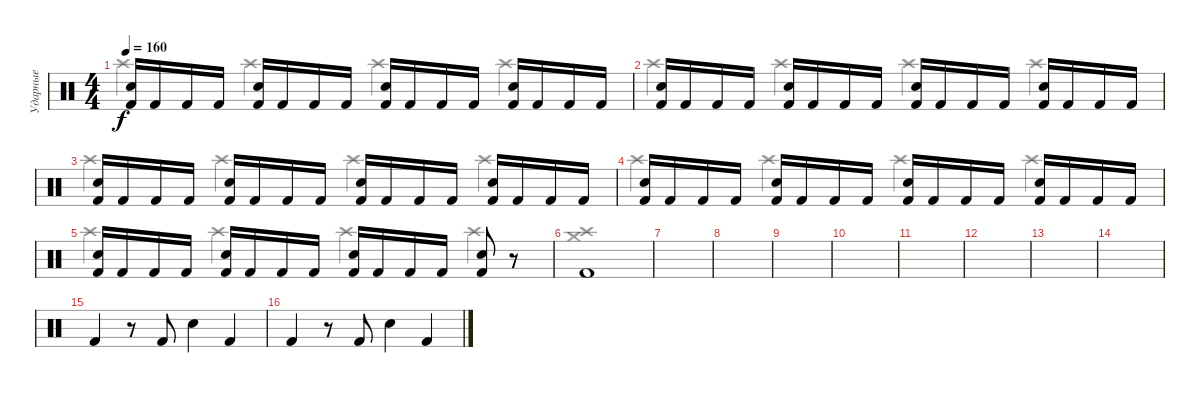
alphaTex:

\track ("Ударные" "Ударные") {instrument percussion}
\staff {score}
\articulation defaults
\voice
\ts (4 4)
\tempo 160
\clef neutral
\ks c
("Electric Snare (hit)" "Kick (hit) 2").16{dy f} "Kick (hit) 2".16 "Kick (hit) 2".16 "Kick (hit) 2".16 ("Electric Snare (hit)" "Kick (hit) 2").16 "Kick (hit) 2".16 "Kick (hit) 2".16 "Kick (hit) 2".16 ("Electric Snare (hit)" "Kick (hit) 2").16 "Kick (hit) 2".16 "Kick (hit) 2".16 "Kick (hit) 2".16 ("Electric Snare (hit)" "Kick (hit) 2").16 "Kick (hit) 2".16 "Kick (hit) 2".16 "Kick (hit) 2".16 |
("Electric Snare (hit)" "Kick (hit) 2").16 "Kick (hit) 2".16 "Kick (hit) 2".16 "Kick (hit) 2".16 ("Electric Snare (hit)" "Kick (hit) 2").16 "Kick (hit) 2".16 "Kick (hit) 2".16 "Kick (hit) 2".16 ("Electric Snare (hit)" "Kick (hit) 2").16 "Kick (hit) 2".16 "Kick (hit) 2".16 "Kick (hit) 2".16 ("Electric Snare (hit)" "Kick (hit) 2").16 "Kick (hit) 2".16 "Kick (hit) 2".16 "Kick (hit) 2".16 |
("Electric Snare (hit)" "Kick (hit) 2").16 "Kick (hit) 2".16 "Kick (hit) 2".16 "Kick (hit) 2".16 ("Electric Snare (hit)" "Kick (hit) 2").16 "Kick (hit) 2".16 "Kick (hit) 2".16 "Kick (hit) 2".16 ("Electric Snare (hit)" "Kick (hit) 2").16 "Kick (hit) 2".16 "Kick (hit) 2".16 "Kick (hit) 2".16 ("Electric Snare (hit)" "Kick (hit) 2").16 "Kick (hit) 2".16 "Kick (hit) 2".16 "Kick (hit) 2".16 |
("Electric Snare (hit)" "Kick (hit) 2").16 "Kick (hit) 2".16 "Kick (hit) 2".16 "Kick (hit) 2".16 ("Electric Snare (hit)" "Kick (hit) 2").16 "Kick (hit) 2".16 "Kick (hit) 2".16 "Kick (hit) 2".16 ("Electric Snare (hit)" "Kick (hit) 2").16 "Kick (hit) 2".16 "Kick (hit) 2".16 "Kick (hit) 2".16 ("Electric Snare (hit)" "Kick (hit) 2").16 "Kick (hit) 2".16 "Kick (hit) 2".16 "Kick (hit) 2".16 |
("Electric Snare (hit)" "Kick (hit) 2").16 "Kick (hit) 2".16 "Kick (hit) 2".16 "Kick (hit) 2".16 ("Electric Snare (hit)" "Kick (hit) 2").16 "Kick (hit) 2".16 "Kick (hit) 2".16 "Kick (hit) 2".16 ("Electric Snare (hit)" "Kick (hit) 2").16 "Kick (hit) 2".16 "Kick (hit) 2".16 "Kick (hit) 2".16 ("Electric Snare (hit)" "Kick (hit) 2").8 r.8 |
"Kick (hit) 2".1 |
|
|
|
|
|
|
|
|
"Kick (hit) 2".4 r.8 "Kick (hit) 2".8 "Electric Snare (hit)".4 "Kick (hit) 2".4 |
"Kick (hit) 2".4 r.8 "Kick (hit) 2".8 "Electric Snare (hit)".4 "Kick (hit) 2".4
\voice
\clef neutral
\ottava regular
\simile none
\ks c "Crash high (hit)".4{dy f} "Crash high (hit)".4 "Crash high (hit)".4 "Crash high (hit)".4
|
"Crash high (hit)".4 "Crash high (hit)".4 "Crash high (hit)".4 "Crash high (hit)".4 |
"Crash high (hit)".4 "Crash high (hit)".4 "Crash high (hit)".4 "Crash high (hit)".4 |
"Crash high (hit)".4 "Crash high (hit)".4 "Crash high (hit)".4 "Crash high (hit)".4 |
"Crash high (hit)".4 "Crash high (hit)".4 "Crash high (hit)".4 "Crash high (hit)".4 |
("Crash medium (hit)" "Crash high (hit)").1 |
|
|
|
|
|
|
|
|
|
